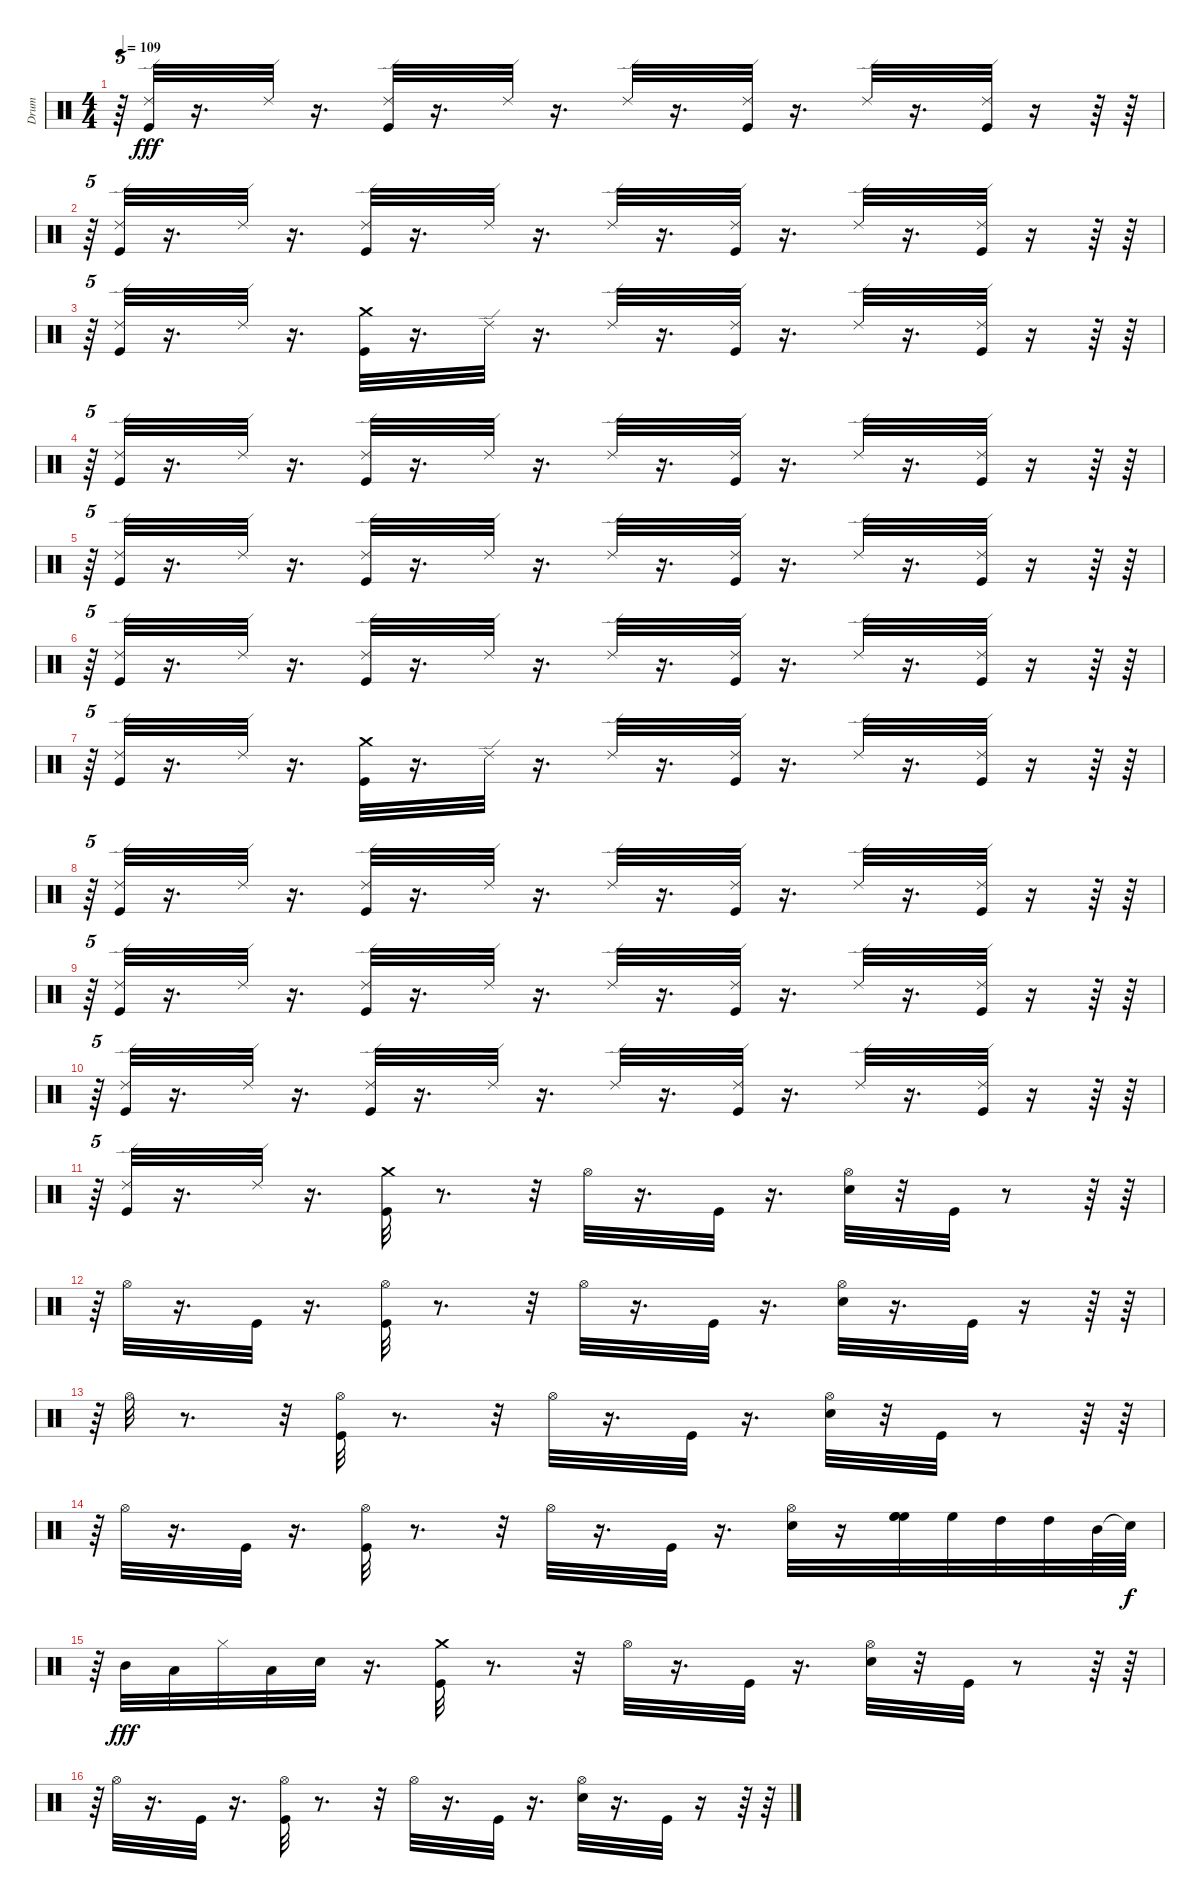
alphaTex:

\track ("Drum" "Drum") {instrument percussion}
\staff {score}
\articulation defaults
\ts (4 4)
\tempo 109
\clef neutral
\ks c
r.64{tu (5 4) dy fff} ("Kick (hit)" "Ride (edge) 2").32 r.16{d} "Ride (edge) 2".32 r.16{d} ("Ride (edge) 2" "Kick (hit)").32 r.16{d} "Ride (edge) 2".32 r.16{d} "Ride (edge) 2".32 r.16{d} ("Ride (edge) 2" "Kick (hit)").32 r.16{d} "Ride (edge) 2".32 r.16{d} ("Kick (hit)" "Ride (edge) 2").32 r.16 r.64 r.64 |
r.64{tu (5 4)} ("Kick (hit)" "Ride (edge) 2").32 r.16{d} "Ride (edge) 2".32 r.16{d} ("Kick (hit)" "Ride (edge) 2").32 r.16{d} "Ride (edge) 2".32 r.16{d} "Ride (edge) 2".32 r.16{d} ("Ride (edge) 2" "Kick (hit)").32 r.16{d} "Ride (edge) 2".32 r.16{d} ("Ride (edge) 2" "Kick (hit)").32 r.16 r.64 r.64 |
r.64{tu (5 4)} ("Kick (hit)" "Ride (edge) 2").32 r.16{d} "Ride (edge) 2".32 r.16{d} ("Crash medium (hit)" "Kick (hit)").32 r.16{d} "Ride (edge) 2".32 r.16{d} "Ride (edge) 2".32 r.16{d} ("Kick (hit)" "Ride (edge) 2").32 r.16{d} "Ride (edge) 2".32 r.16{d} ("Kick (hit)" "Ride (edge) 2").32 r.16 r.64 r.64 |
r.64{tu (5 4)} ("Ride (edge) 2" "Kick (hit)").32 r.16{d} "Ride (edge) 2".32 r.16{d} ("Kick (hit)" "Ride (edge) 2").32 r.16{d} "Ride (edge) 2".32 r.16{d} "Ride (edge) 2".32 r.16{d} ("Ride (edge) 2" "Kick (hit)").32 r.16{d} "Ride (edge) 2".32 r.16{d} ("Ride (edge) 2" "Kick (hit)").32 r.16 r.64 r.64 |
r.64{tu (5 4)} ("Kick (hit)" "Ride (edge) 2").32 r.16{d} "Ride (edge) 2".32 r.16{d} ("Kick (hit)" "Ride (edge) 2").32 r.16{d} "Ride (edge) 2".32 r.16{d} "Ride (edge) 2".32 r.16{d} ("Ride (edge) 2" "Kick (hit)").32 r.16{d} "Ride (edge) 2".32 r.16{d} ("Ride (edge) 2" "Kick (hit)").32 r.16 r.64 r.64 |
r.64{tu (5 4)} ("Kick (hit)" "Ride (edge) 2").32 r.16{d} "Ride (edge) 2".32 r.16{d} ("Kick (hit)" "Ride (edge) 2").32 r.16{d} "Ride (edge) 2".32 r.16{d} "Ride (edge) 2".32 r.16{d} ("Ride (edge) 2" "Kick (hit)").32 r.16{d} "Ride (edge) 2".32 r.16{d} ("Kick (hit)" "Ride (edge) 2").32 r.16 r.64 r.64 |
r.64{tu (5 4)} ("Ride (edge) 2" "Kick (hit)").32 r.16{d} "Ride (edge) 2".32 r.16{d} ("Crash medium (hit)" "Kick (hit)").32 r.16{d} "Ride (edge) 2".32 r.16{d} "Ride (edge) 2".32 r.16{d} ("Ride (edge) 2" "Kick (hit)").32 r.16{d} "Ride (edge) 2".32 r.16{d} ("Ride (edge) 2" "Kick (hit)").32 r.16 r.64 r.64 |
r.64{tu (5 4)} ("Kick (hit)" "Ride (edge) 2").32 r.16{d} "Ride (edge) 2".32 r.16{d} ("Kick (hit)" "Ride (edge) 2").32 r.16{d} "Ride (edge) 2".32 r.16{d} "Ride (edge) 2".32 r.16{d} ("Ride (edge) 2" "Kick (hit)").32 r.16{d} "Ride (edge) 2".32 r.16{d} ("Ride (edge) 2" "Kick (hit)").32 r.16 r.64 r.64 |
r.64{tu (5 4)} ("Kick (hit)" "Ride (edge) 2").32 r.16{d} "Ride (edge) 2".32 r.16{d} ("Kick (hit)" "Ride (edge) 2").32 r.16{d} "Ride (edge) 2".32 r.16{d} "Ride (edge) 2".32 r.16{d} ("Kick (hit)" "Ride (edge) 2").32 r.16{d} "Ride (edge) 2".32 r.16{d} ("Kick (hit)" "Ride (edge) 2").32 r.16 r.64 r.64 |
r.64{tu (5 4)} ("Kick (hit)" "Ride (edge) 2").32 r.16{d} "Ride (edge) 2".32 r.16{d} ("Ride (edge) 2" "Kick (hit)").32 r.16{d} "Ride (edge) 2".32 r.16{d} "Ride (edge) 2".32 r.16{d} ("Ride (edge) 2" "Kick (hit)").32 r.16{d} "Ride (edge) 2".32 r.16{d} ("Kick (hit)" "Ride (edge) 2").32 r.16 r.64 r.64 |
r.64{tu (5 4)} ("Ride (edge) 2" "Kick (hit)").32 r.16{d} "Ride (edge) 2".32 r.16{d} ("Crash medium (hit)" "Kick (hit)").32 r.8{d} r.32 "Hi-Hat (open)".32 r.16{d} "Kick (hit)".32 r.16{d} ("Snare (hit) 2" "Hi-Hat (open)").32 r.32 "Kick (hit)".32 r.8 r.64 r.64 |
r.64{tu (5 4)} "Hi-Hat (open)".32 r.16{d} "Kick (hit)".32 r.16{d} ("Kick (hit)" "Hi-Hat (open)").32 r.8{d} r.32 "Hi-Hat (open)".32 r.16{d} "Kick (hit)".32 r.16{d} ("Hi-Hat (open)" "Snare (hit) 2").32 r.16{d} "Kick (hit)".32 r.16 r.64 r.64 |
r.64{tu (5 4)} "Hi-Hat (open)".32 r.8{d} r.32 ("Hi-Hat (open)" "Kick (hit)").32 r.8{d} r.32 "Hi-Hat (open)".32 r.16{d} "Kick (hit)".32 r.16{d} ("Snare (hit) 2" "Hi-Hat (open)").32 r.32 "Kick (hit)".32 r.8 r.64 r.64 |
r.64{tu (5 4)} "Hi-Hat (open)".32 r.16{d} "Kick (hit)".32 r.16{d} ("Kick (hit)" "Hi-Hat (open)").32 r.8{d} r.32 "Hi-Hat (open)".32 r.16{d} "Kick (hit)".32 r.16{d} ("Hi-Hat (open)" "Snare (hit) 2").32 r.16 ("High Floor Tom (hit)" "High Floor Tom (hit)" "High Floor Tom (hit)").32 "High Floor Tom (hit)".32 "High Tom (hit)".32 "High Tom (hit)".32 "Mid Tom (hit)".64 "Snare (hit)"{t}.64{dy f} |
r.64{tu (5 4)} "Mid Tom (hit)".32{dy fff} "Low Tom (hit)".32 "Hi-Hat (closed)".32 "Low Floor Tom (hit)".32 "Snare (hit) 2".32 r.16{d} ("Kick (hit)" "Crash medium (hit)").32 r.8{d} r.32 "Hi-Hat (open)".32 r.16{d} "Kick (hit)".32 r.16{d} ("Snare (hit) 2" "Hi-Hat (open)").32 r.32 "Kick (hit)".32 r.8 r.64 r.64 |
r.64{tu (5 4)} "Hi-Hat (open)".32 r.16{d} "Kick (hit)".32 r.16{d} ("Kick (hit)" "Hi-Hat (open)").32 r.8{d} r.32 "Hi-Hat (open)".32 r.16{d} "Kick (hit)".32 r.16{d} ("Hi-Hat (open)" "Snare (hit) 2").32 r.16{d} "Kick (hit)".32 r.16 r.64 r.64
